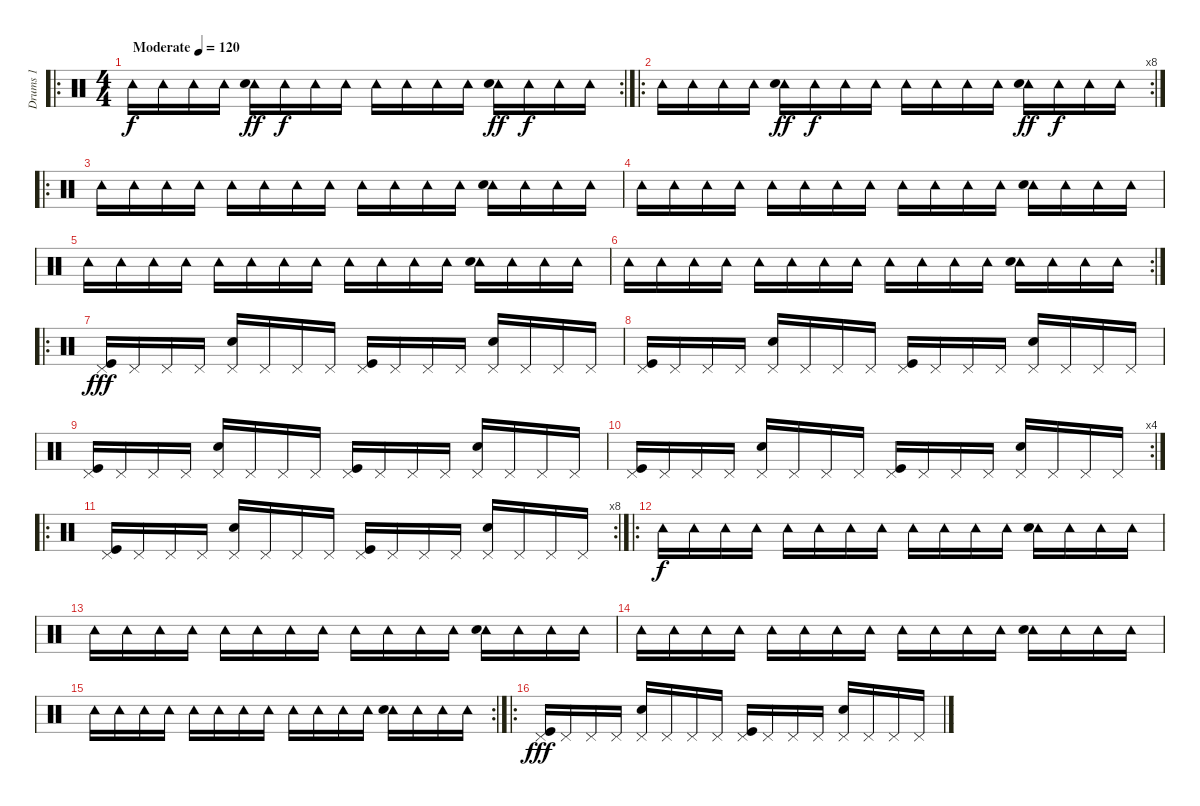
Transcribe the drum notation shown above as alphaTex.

\track ("Drums 1" "Drums 1") {instrument percussion}
\staff {score}
\articulation defaults
\ro
\rc 2
\ts (4 4)
\tempo (120 "Moderate")
\clef neutral
\ks c "Tambourine (hit)".16{dy f} "Tambourine (hit)".16 "Tambourine (hit)".16 "Tambourine (hit)".16
("Tambourine (hit)" "Hand Clap (hit)").16{dy ff} "Tambourine (hit)".16{dy f} "Tambourine (hit)".16 "Tambourine (hit)".16 "Tambourine (hit)".16 "Tambourine (hit)".16 "Tambourine (hit)".16 "Tambourine (hit)".16 ("Tambourine (hit)" "Hand Clap (hit)").16{dy ff} "Tambourine (hit)".16{dy f} "Tambourine (hit)".16 "Tambourine (hit)".16 |
\ro
\rc 8 "Tambourine (hit)".16 "Tambourine (hit)".16 "Tambourine (hit)".16 "Tambourine (hit)".16
("Tambourine (hit)" "Hand Clap (hit)").16{dy ff} "Tambourine (hit)".16{dy f} "Tambourine (hit)".16 "Tambourine (hit)".16 "Tambourine (hit)".16 "Tambourine (hit)".16 "Tambourine (hit)".16 "Tambourine (hit)".16 ("Tambourine (hit)" "Hand Clap (hit)").16{dy ff} "Tambourine (hit)".16{dy f} "Tambourine (hit)".16 "Tambourine (hit)".16 |
\ro "Tambourine (hit)".16 "Tambourine (hit)".16 "Tambourine (hit)".16 "Tambourine (hit)".16 "Tambourine (hit)".16 "Tambourine (hit)".16 "Tambourine (hit)".16 "Tambourine (hit)".16 "Tambourine (hit)".16 "Tambourine (hit)".16 "Tambourine (hit)".16 "Tambourine (hit)".16
("Tambourine (hit)" "Hand Clap (hit)").16 "Tambourine (hit)".16 "Tambourine (hit)".16 "Tambourine (hit)".16 |
"Tambourine (hit)".16 "Tambourine (hit)".16 "Tambourine (hit)".16 "Tambourine (hit)".16 "Tambourine (hit)".16 "Tambourine (hit)".16 "Tambourine (hit)".16 "Tambourine (hit)".16 "Tambourine (hit)".16 "Tambourine (hit)".16 "Tambourine (hit)".16 "Tambourine (hit)".16 ("Tambourine (hit)" "Hand Clap (hit)").16 "Tambourine (hit)".16 "Tambourine (hit)".16 "Tambourine (hit)".16 |
"Tambourine (hit)".16 "Tambourine (hit)".16 "Tambourine (hit)".16 "Tambourine (hit)".16 "Tambourine (hit)".16 "Tambourine (hit)".16 "Tambourine (hit)".16 "Tambourine (hit)".16 "Tambourine (hit)".16 "Tambourine (hit)".16 "Tambourine (hit)".16 "Tambourine (hit)".16 ("Tambourine (hit)" "Hand Clap (hit)").16 "Tambourine (hit)".16 "Tambourine (hit)".16 "Tambourine (hit)".16 |
\rc 2 "Tambourine (hit)".16 "Tambourine (hit)".16 "Tambourine (hit)".16 "Tambourine (hit)".16 "Tambourine (hit)".16 "Tambourine (hit)".16 "Tambourine (hit)".16 "Tambourine (hit)".16 "Tambourine (hit)".16 "Tambourine (hit)".16 "Tambourine (hit)".16 "Tambourine (hit)".16
("Tambourine (hit)" "Hand Clap (hit)").16 "Tambourine (hit)".16 "Tambourine (hit)".16 "Tambourine (hit)".16 |
\ro
("Pedal Hi-Hat (hit)" "Kick (hit)").16{dy fff} "Pedal Hi-Hat (hit)".16 "Pedal Hi-Hat (hit)".16 "Pedal Hi-Hat (hit)".16 ("Pedal Hi-Hat (hit)" "Snare (hit) 2").16 "Pedal Hi-Hat (hit)".16 "Pedal Hi-Hat (hit)".16 "Pedal Hi-Hat (hit)".16 ("Pedal Hi-Hat (hit)" "Kick (hit)").16 "Pedal Hi-Hat (hit)".16 "Pedal Hi-Hat (hit)".16 "Pedal Hi-Hat (hit)".16 ("Pedal Hi-Hat (hit)" "Snare (hit) 2").16 "Pedal Hi-Hat (hit)".16 "Pedal Hi-Hat (hit)".16 "Pedal Hi-Hat (hit)".16 |
("Pedal Hi-Hat (hit)" "Kick (hit)").16 "Pedal Hi-Hat (hit)".16 "Pedal Hi-Hat (hit)".16 "Pedal Hi-Hat (hit)".16 ("Pedal Hi-Hat (hit)" "Snare (hit) 2").16 "Pedal Hi-Hat (hit)".16 "Pedal Hi-Hat (hit)".16 "Pedal Hi-Hat (hit)".16 ("Pedal Hi-Hat (hit)" "Kick (hit)").16 "Pedal Hi-Hat (hit)".16 "Pedal Hi-Hat (hit)".16 "Pedal Hi-Hat (hit)".16 ("Pedal Hi-Hat (hit)" "Snare (hit) 2").16 "Pedal Hi-Hat (hit)".16 "Pedal Hi-Hat (hit)".16 "Pedal Hi-Hat (hit)".16 |
("Pedal Hi-Hat (hit)" "Kick (hit)").16 "Pedal Hi-Hat (hit)".16 "Pedal Hi-Hat (hit)".16 "Pedal Hi-Hat (hit)".16 ("Pedal Hi-Hat (hit)" "Snare (hit) 2").16 "Pedal Hi-Hat (hit)".16 "Pedal Hi-Hat (hit)".16 "Pedal Hi-Hat (hit)".16 ("Pedal Hi-Hat (hit)" "Kick (hit)").16 "Pedal Hi-Hat (hit)".16 "Pedal Hi-Hat (hit)".16 "Pedal Hi-Hat (hit)".16 ("Pedal Hi-Hat (hit)" "Snare (hit) 2").16 "Pedal Hi-Hat (hit)".16 "Pedal Hi-Hat (hit)".16 "Pedal Hi-Hat (hit)".16 |
\rc 4
("Pedal Hi-Hat (hit)" "Kick (hit)").16 "Pedal Hi-Hat (hit)".16 "Pedal Hi-Hat (hit)".16 "Pedal Hi-Hat (hit)".16 ("Pedal Hi-Hat (hit)" "Snare (hit) 2").16 "Pedal Hi-Hat (hit)".16 "Pedal Hi-Hat (hit)".16 "Pedal Hi-Hat (hit)".16 ("Pedal Hi-Hat (hit)" "Kick (hit)").16 "Pedal Hi-Hat (hit)".16 "Pedal Hi-Hat (hit)".16 "Pedal Hi-Hat (hit)".16 ("Pedal Hi-Hat (hit)" "Snare (hit) 2").16 "Pedal Hi-Hat (hit)".16 "Pedal Hi-Hat (hit)".16 "Pedal Hi-Hat (hit)".16 |
\ro
\rc 8
("Pedal Hi-Hat (hit)" "Kick (hit)").16 "Pedal Hi-Hat (hit)".16 "Pedal Hi-Hat (hit)".16 "Pedal Hi-Hat (hit)".16 ("Pedal Hi-Hat (hit)" "Snare (hit) 2").16 "Pedal Hi-Hat (hit)".16 "Pedal Hi-Hat (hit)".16 "Pedal Hi-Hat (hit)".16 ("Pedal Hi-Hat (hit)" "Kick (hit)").16 "Pedal Hi-Hat (hit)".16 "Pedal Hi-Hat (hit)".16 "Pedal Hi-Hat (hit)".16 ("Pedal Hi-Hat (hit)" "Snare (hit) 2").16 "Pedal Hi-Hat (hit)".16 "Pedal Hi-Hat (hit)".16 "Pedal Hi-Hat (hit)".16 |
\ro "Tambourine (hit)".16{dy f} "Tambourine (hit)".16 "Tambourine (hit)".16 "Tambourine (hit)".16 "Tambourine (hit)".16 "Tambourine (hit)".16 "Tambourine (hit)".16 "Tambourine (hit)".16 "Tambourine (hit)".16 "Tambourine (hit)".16 "Tambourine (hit)".16 "Tambourine (hit)".16
("Tambourine (hit)" "Hand Clap (hit)").16 "Tambourine (hit)".16 "Tambourine (hit)".16 "Tambourine (hit)".16 |
"Tambourine (hit)".16 "Tambourine (hit)".16 "Tambourine (hit)".16 "Tambourine (hit)".16 "Tambourine (hit)".16 "Tambourine (hit)".16 "Tambourine (hit)".16 "Tambourine (hit)".16 "Tambourine (hit)".16 "Tambourine (hit)".16 "Tambourine (hit)".16 "Tambourine (hit)".16 ("Tambourine (hit)" "Hand Clap (hit)").16 "Tambourine (hit)".16 "Tambourine (hit)".16 "Tambourine (hit)".16 |
"Tambourine (hit)".16 "Tambourine (hit)".16 "Tambourine (hit)".16 "Tambourine (hit)".16 "Tambourine (hit)".16 "Tambourine (hit)".16 "Tambourine (hit)".16 "Tambourine (hit)".16 "Tambourine (hit)".16 "Tambourine (hit)".16 "Tambourine (hit)".16 "Tambourine (hit)".16 ("Tambourine (hit)" "Hand Clap (hit)").16 "Tambourine (hit)".16 "Tambourine (hit)".16 "Tambourine (hit)".16 |
\rc 2 "Tambourine (hit)".16 "Tambourine (hit)".16 "Tambourine (hit)".16 "Tambourine (hit)".16 "Tambourine (hit)".16 "Tambourine (hit)".16 "Tambourine (hit)".16 "Tambourine (hit)".16 "Tambourine (hit)".16 "Tambourine (hit)".16 "Tambourine (hit)".16 "Tambourine (hit)".16
("Tambourine (hit)" "Hand Clap (hit)").16 "Tambourine (hit)".16 "Tambourine (hit)".16 "Tambourine (hit)".16 |
\ro
("Pedal Hi-Hat (hit)" "Kick (hit)").16{dy fff} "Pedal Hi-Hat (hit)".16 "Pedal Hi-Hat (hit)".16 "Pedal Hi-Hat (hit)".16 ("Pedal Hi-Hat (hit)" "Snare (hit) 2").16 "Pedal Hi-Hat (hit)".16 "Pedal Hi-Hat (hit)".16 "Pedal Hi-Hat (hit)".16 ("Pedal Hi-Hat (hit)" "Kick (hit)").16 "Pedal Hi-Hat (hit)".16 "Pedal Hi-Hat (hit)".16 "Pedal Hi-Hat (hit)".16 ("Pedal Hi-Hat (hit)" "Snare (hit) 2").16 "Pedal Hi-Hat (hit)".16 "Pedal Hi-Hat (hit)".16 "Pedal Hi-Hat (hit)".16
